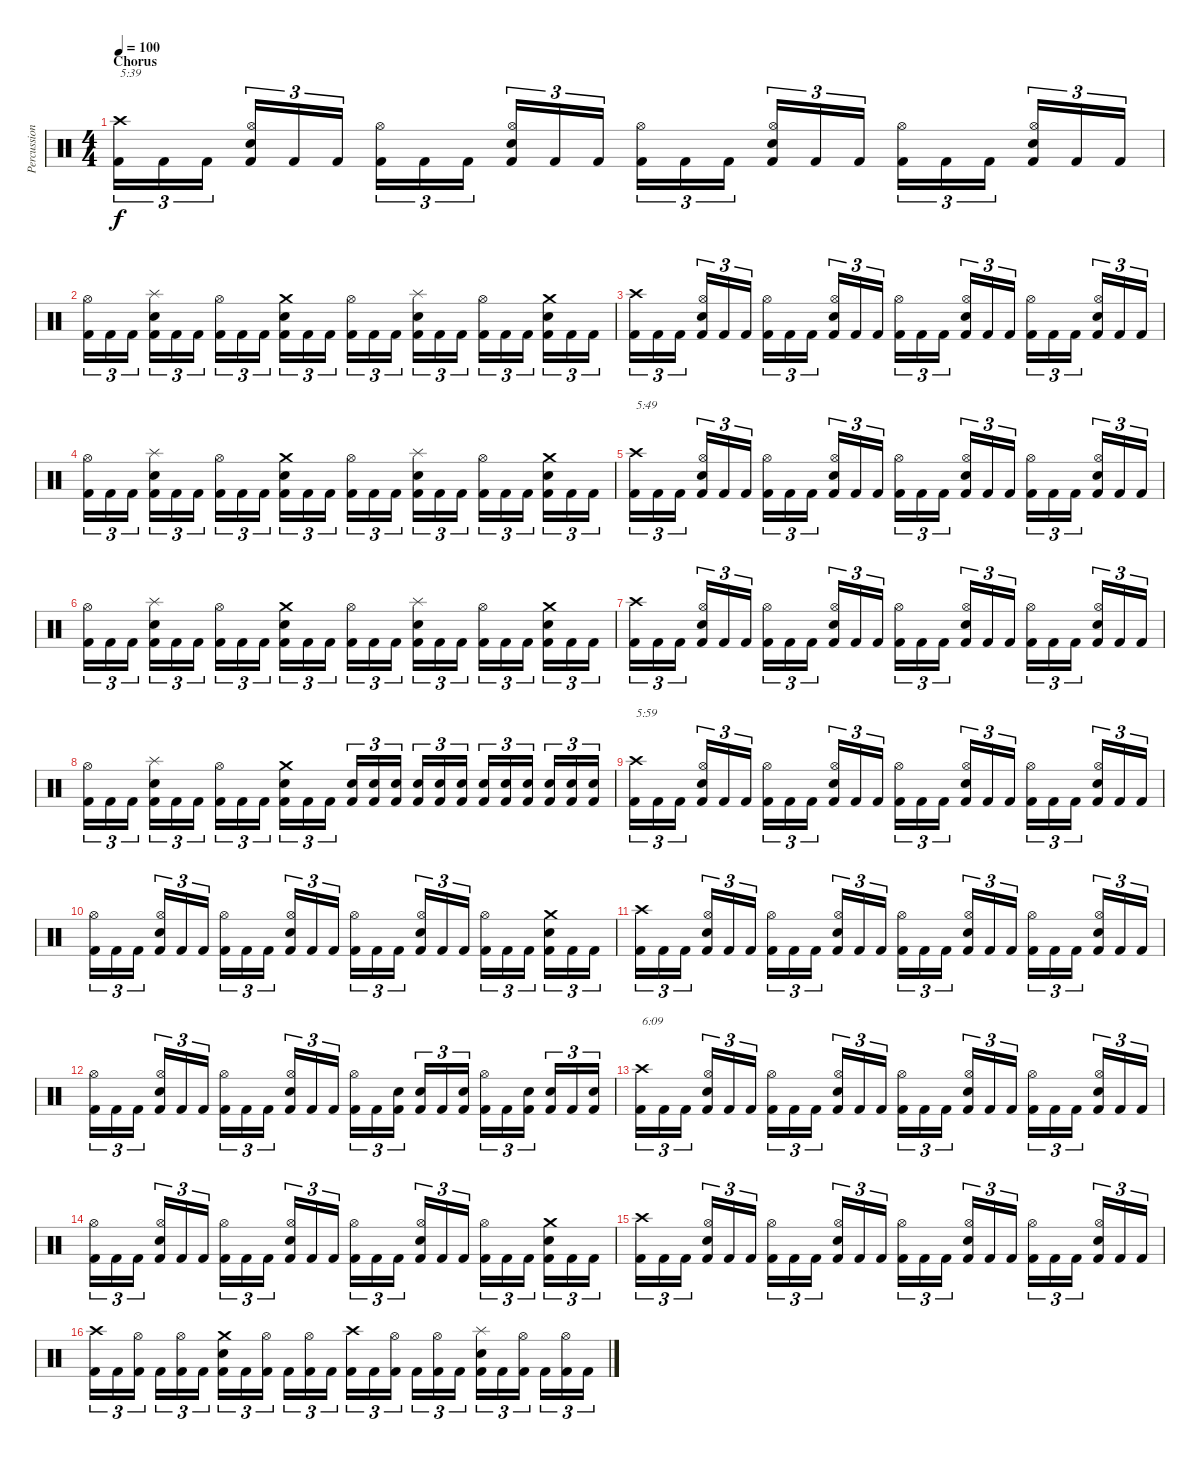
\track ("Percussion" "Percussion") {instrument percussion}
\staff {score}
\articulation defaults
\ts (4 4)
\section ("" "Chorus")
\tempo 100
\clef neutral
\ks c
("Crash high (hit)" "Kick (hit) 2").16{tu (3 2) txt "5:39" dy f} "Kick (hit) 2".16{tu (3 2)} "Kick (hit) 2".16{tu (3 2)} ("Hi-Hat (open)" "Snare (hit) 2" "Kick (hit) 2").16{tu (3 2)} "Kick (hit) 2".16{tu (3 2)} "Kick (hit) 2".16{tu (3 2)} ("Hi-Hat (open)" "Kick (hit) 2").16{tu (3 2)} "Kick (hit) 2".16{tu (3 2)} "Kick (hit) 2".16{tu (3 2)} ("Hi-Hat (open)" "Snare (hit) 2" "Kick (hit) 2").16{tu (3 2)} "Kick (hit) 2".16{tu (3 2)} "Kick (hit) 2".16{tu (3 2)} ("Hi-Hat (open)" "Kick (hit) 2").16{tu (3 2)} "Kick (hit) 2".16{tu (3 2)} "Kick (hit) 2".16{tu (3 2)} ("Hi-Hat (open)" "Snare (hit) 2" "Kick (hit) 2").16{tu (3 2)} "Kick (hit) 2".16{tu (3 2)} "Kick (hit) 2".16{tu (3 2)} ("Hi-Hat (open)" "Kick (hit) 2").16{tu (3 2)} "Kick (hit) 2".16{tu (3 2)} "Kick (hit) 2".16{tu (3 2)} ("Hi-Hat (open)" "Snare (hit) 2" "Kick (hit) 2").16{tu (3 2)} "Kick (hit) 2".16{tu (3 2)} "Kick (hit) 2".16{tu (3 2)} |
("Hi-Hat (open)" "Kick (hit) 2").16{tu (3 2)} "Kick (hit) 2".16{tu (3 2)} "Kick (hit) 2".16{tu (3 2)} ("Splash (hit)" "Snare (hit) 2" "Kick (hit) 2").16{tu (3 2)} "Kick (hit) 2".16{tu (3 2)} "Kick (hit) 2".16{tu (3 2)} ("Hi-Hat (open)" "Kick (hit) 2").16{tu (3 2)} "Kick (hit) 2".16{tu (3 2)} "Kick (hit) 2".16{tu (3 2)} ("Crash medium (hit)" "Snare (hit) 2" "Kick (hit) 2").16{tu (3 2)} "Kick (hit) 2".16{tu (3 2)} "Kick (hit) 2".16{tu (3 2)} ("Hi-Hat (open)" "Kick (hit) 2").16{tu (3 2)} "Kick (hit) 2".16{tu (3 2)} "Kick (hit) 2".16{tu (3 2)} ("Splash (hit)" "Snare (hit) 2" "Kick (hit) 2").16{tu (3 2)} "Kick (hit) 2".16{tu (3 2)} "Kick (hit) 2".16{tu (3 2)} ("Hi-Hat (open)" "Kick (hit) 2").16{tu (3 2)} "Kick (hit) 2".16{tu (3 2)} "Kick (hit) 2".16{tu (3 2)} ("Crash medium (hit)" "Snare (hit) 2" "Kick (hit) 2").16{tu (3 2)} "Kick (hit) 2".16{tu (3 2)} "Kick (hit) 2".16{tu (3 2)} |
("Crash high (hit)" "Kick (hit) 2").16{tu (3 2)} "Kick (hit) 2".16{tu (3 2)} "Kick (hit) 2".16{tu (3 2)} ("Hi-Hat (open)" "Snare (hit) 2" "Kick (hit) 2").16{tu (3 2)} "Kick (hit) 2".16{tu (3 2)} "Kick (hit) 2".16{tu (3 2)} ("Hi-Hat (open)" "Kick (hit) 2").16{tu (3 2)} "Kick (hit) 2".16{tu (3 2)} "Kick (hit) 2".16{tu (3 2)} ("Hi-Hat (open)" "Snare (hit) 2" "Kick (hit) 2").16{tu (3 2)} "Kick (hit) 2".16{tu (3 2)} "Kick (hit) 2".16{tu (3 2)} ("Hi-Hat (open)" "Kick (hit) 2").16{tu (3 2)} "Kick (hit) 2".16{tu (3 2)} "Kick (hit) 2".16{tu (3 2)} ("Hi-Hat (open)" "Snare (hit) 2" "Kick (hit) 2").16{tu (3 2)} "Kick (hit) 2".16{tu (3 2)} "Kick (hit) 2".16{tu (3 2)} ("Hi-Hat (open)" "Kick (hit) 2").16{tu (3 2)} "Kick (hit) 2".16{tu (3 2)} "Kick (hit) 2".16{tu (3 2)} ("Hi-Hat (open)" "Snare (hit) 2" "Kick (hit) 2").16{tu (3 2)} "Kick (hit) 2".16{tu (3 2)} "Kick (hit) 2".16{tu (3 2)} |
("Hi-Hat (open)" "Kick (hit) 2").16{tu (3 2)} "Kick (hit) 2".16{tu (3 2)} "Kick (hit) 2".16{tu (3 2)} ("Splash (hit)" "Snare (hit) 2" "Kick (hit) 2").16{tu (3 2)} "Kick (hit) 2".16{tu (3 2)} "Kick (hit) 2".16{tu (3 2)} ("Hi-Hat (open)" "Kick (hit) 2").16{tu (3 2)} "Kick (hit) 2".16{tu (3 2)} "Kick (hit) 2".16{tu (3 2)} ("Crash medium (hit)" "Snare (hit) 2" "Kick (hit) 2").16{tu (3 2)} "Kick (hit) 2".16{tu (3 2)} "Kick (hit) 2".16{tu (3 2)} ("Hi-Hat (open)" "Kick (hit) 2").16{tu (3 2)} "Kick (hit) 2".16{tu (3 2)} "Kick (hit) 2".16{tu (3 2)} ("Splash (hit)" "Snare (hit) 2" "Kick (hit) 2").16{tu (3 2)} "Kick (hit) 2".16{tu (3 2)} "Kick (hit) 2".16{tu (3 2)} ("Hi-Hat (open)" "Kick (hit) 2").16{tu (3 2)} "Kick (hit) 2".16{tu (3 2)} "Kick (hit) 2".16{tu (3 2)} ("Crash medium (hit)" "Snare (hit) 2" "Kick (hit) 2").16{tu (3 2)} "Kick (hit) 2".16{tu (3 2)} "Kick (hit) 2".16{tu (3 2)} |
("Crash high (hit)" "Kick (hit) 2").16{tu (3 2) txt "5:49"} "Kick (hit) 2".16{tu (3 2)} "Kick (hit) 2".16{tu (3 2)} ("Hi-Hat (open)" "Snare (hit) 2" "Kick (hit) 2").16{tu (3 2)} "Kick (hit) 2".16{tu (3 2)} "Kick (hit) 2".16{tu (3 2)} ("Hi-Hat (open)" "Kick (hit) 2").16{tu (3 2)} "Kick (hit) 2".16{tu (3 2)} "Kick (hit) 2".16{tu (3 2)} ("Hi-Hat (open)" "Snare (hit) 2" "Kick (hit) 2").16{tu (3 2)} "Kick (hit) 2".16{tu (3 2)} "Kick (hit) 2".16{tu (3 2)} ("Hi-Hat (open)" "Kick (hit) 2").16{tu (3 2)} "Kick (hit) 2".16{tu (3 2)} "Kick (hit) 2".16{tu (3 2)} ("Hi-Hat (open)" "Snare (hit) 2" "Kick (hit) 2").16{tu (3 2)} "Kick (hit) 2".16{tu (3 2)} "Kick (hit) 2".16{tu (3 2)} ("Hi-Hat (open)" "Kick (hit) 2").16{tu (3 2)} "Kick (hit) 2".16{tu (3 2)} "Kick (hit) 2".16{tu (3 2)} ("Hi-Hat (open)" "Snare (hit) 2" "Kick (hit) 2").16{tu (3 2)} "Kick (hit) 2".16{tu (3 2)} "Kick (hit) 2".16{tu (3 2)} |
("Hi-Hat (open)" "Kick (hit) 2").16{tu (3 2)} "Kick (hit) 2".16{tu (3 2)} "Kick (hit) 2".16{tu (3 2)} ("Splash (hit)" "Snare (hit) 2" "Kick (hit) 2").16{tu (3 2)} "Kick (hit) 2".16{tu (3 2)} "Kick (hit) 2".16{tu (3 2)} ("Hi-Hat (open)" "Kick (hit) 2").16{tu (3 2)} "Kick (hit) 2".16{tu (3 2)} "Kick (hit) 2".16{tu (3 2)} ("Crash medium (hit)" "Snare (hit) 2" "Kick (hit) 2").16{tu (3 2)} "Kick (hit) 2".16{tu (3 2)} "Kick (hit) 2".16{tu (3 2)} ("Hi-Hat (open)" "Kick (hit) 2").16{tu (3 2)} "Kick (hit) 2".16{tu (3 2)} "Kick (hit) 2".16{tu (3 2)} ("Splash (hit)" "Snare (hit) 2" "Kick (hit) 2").16{tu (3 2)} "Kick (hit) 2".16{tu (3 2)} "Kick (hit) 2".16{tu (3 2)} ("Hi-Hat (open)" "Kick (hit) 2").16{tu (3 2)} "Kick (hit) 2".16{tu (3 2)} "Kick (hit) 2".16{tu (3 2)} ("Crash medium (hit)" "Snare (hit) 2" "Kick (hit) 2").16{tu (3 2)} "Kick (hit) 2".16{tu (3 2)} "Kick (hit) 2".16{tu (3 2)} |
("Crash high (hit)" "Kick (hit) 2").16{tu (3 2)} "Kick (hit) 2".16{tu (3 2)} "Kick (hit) 2".16{tu (3 2)} ("Hi-Hat (open)" "Snare (hit) 2" "Kick (hit) 2").16{tu (3 2)} "Kick (hit) 2".16{tu (3 2)} "Kick (hit) 2".16{tu (3 2)} ("Hi-Hat (open)" "Kick (hit) 2").16{tu (3 2)} "Kick (hit) 2".16{tu (3 2)} "Kick (hit) 2".16{tu (3 2)} ("Hi-Hat (open)" "Snare (hit) 2" "Kick (hit) 2").16{tu (3 2)} "Kick (hit) 2".16{tu (3 2)} "Kick (hit) 2".16{tu (3 2)} ("Hi-Hat (open)" "Kick (hit) 2").16{tu (3 2)} "Kick (hit) 2".16{tu (3 2)} "Kick (hit) 2".16{tu (3 2)} ("Hi-Hat (open)" "Snare (hit) 2" "Kick (hit) 2").16{tu (3 2)} "Kick (hit) 2".16{tu (3 2)} "Kick (hit) 2".16{tu (3 2)} ("Hi-Hat (open)" "Kick (hit) 2").16{tu (3 2)} "Kick (hit) 2".16{tu (3 2)} "Kick (hit) 2".16{tu (3 2)} ("Hi-Hat (open)" "Snare (hit) 2" "Kick (hit) 2").16{tu (3 2)} "Kick (hit) 2".16{tu (3 2)} "Kick (hit) 2".16{tu (3 2)} |
("Hi-Hat (open)" "Kick (hit) 2").16{tu (3 2)} "Kick (hit) 2".16{tu (3 2)} "Kick (hit) 2".16{tu (3 2)} ("Splash (hit)" "Snare (hit) 2" "Kick (hit) 2").16{tu (3 2)} "Kick (hit) 2".16{tu (3 2)} "Kick (hit) 2".16{tu (3 2)} ("Hi-Hat (open)" "Kick (hit) 2").16{tu (3 2)} "Kick (hit) 2".16{tu (3 2)} "Kick (hit) 2".16{tu (3 2)} ("Crash medium (hit)" "Snare (hit) 2" "Kick (hit) 2").16{tu (3 2)} "Kick (hit) 2".16{tu (3 2)} "Kick (hit) 2".16{tu (3 2)} ("Snare (hit) 2" "Kick (hit) 2").16{tu (3 2)} ("Snare (hit) 2" "Kick (hit) 2").16{tu (3 2)} ("Snare (hit) 2" "Kick (hit) 2").16{tu (3 2)} ("Snare (hit) 2" "Kick (hit) 2").16{tu (3 2)} ("Snare (hit) 2" "Kick (hit) 2").16{tu (3 2)} ("Snare (hit) 2" "Kick (hit) 2").16{tu (3 2)} ("Snare (hit) 2" "Kick (hit) 2").16{tu (3 2)} ("Snare (hit) 2" "Kick (hit) 2").16{tu (3 2)} ("Snare (hit) 2" "Kick (hit) 2").16{tu (3 2)} ("Snare (hit) 2" "Kick (hit) 2").16{tu (3 2)} ("Snare (hit) 2" "Kick (hit) 2").16{tu (3 2)} ("Snare (hit) 2" "Kick (hit) 2").16{tu (3 2)} |
("Crash high (hit)" "Kick (hit) 2").16{tu (3 2) txt "5:59"} "Kick (hit) 2".16{tu (3 2)} "Kick (hit) 2".16{tu (3 2)} ("Hi-Hat (open)" "Snare (hit) 2" "Kick (hit) 2").16{tu (3 2)} "Kick (hit) 2".16{tu (3 2)} "Kick (hit) 2".16{tu (3 2)} ("Hi-Hat (open)" "Kick (hit) 2").16{tu (3 2)} "Kick (hit) 2".16{tu (3 2)} "Kick (hit) 2".16{tu (3 2)} ("Hi-Hat (open)" "Snare (hit) 2" "Kick (hit) 2").16{tu (3 2)} "Kick (hit) 2".16{tu (3 2)} "Kick (hit) 2".16{tu (3 2)} ("Hi-Hat (open)" "Kick (hit) 2").16{tu (3 2)} "Kick (hit) 2".16{tu (3 2)} "Kick (hit) 2".16{tu (3 2)} ("Hi-Hat (open)" "Snare (hit) 2" "Kick (hit) 2").16{tu (3 2)} "Kick (hit) 2".16{tu (3 2)} "Kick (hit) 2".16{tu (3 2)} ("Hi-Hat (open)" "Kick (hit) 2").16{tu (3 2)} "Kick (hit) 2".16{tu (3 2)} "Kick (hit) 2".16{tu (3 2)} ("Hi-Hat (open)" "Snare (hit) 2" "Kick (hit) 2").16{tu (3 2)} "Kick (hit) 2".16{tu (3 2)} "Kick (hit) 2".16{tu (3 2)} |
("Hi-Hat (open)" "Kick (hit) 2").16{tu (3 2)} "Kick (hit) 2".16{tu (3 2)} "Kick (hit) 2".16{tu (3 2)} ("Hi-Hat (open)" "Snare (hit) 2" "Kick (hit) 2").16{tu (3 2)} "Kick (hit) 2".16{tu (3 2)} "Kick (hit) 2".16{tu (3 2)} ("Hi-Hat (open)" "Kick (hit) 2").16{tu (3 2)} "Kick (hit) 2".16{tu (3 2)} "Kick (hit) 2".16{tu (3 2)} ("Hi-Hat (open)" "Snare (hit) 2" "Kick (hit) 2").16{tu (3 2)} "Kick (hit) 2".16{tu (3 2)} "Kick (hit) 2".16{tu (3 2)} ("Hi-Hat (open)" "Kick (hit) 2").16{tu (3 2)} "Kick (hit) 2".16{tu (3 2)} "Kick (hit) 2".16{tu (3 2)} ("Hi-Hat (open)" "Snare (hit) 2" "Kick (hit) 2").16{tu (3 2)} "Kick (hit) 2".16{tu (3 2)} "Kick (hit) 2".16{tu (3 2)} ("Hi-Hat (open)" "Kick (hit) 2").16{tu (3 2)} "Kick (hit) 2".16{tu (3 2)} "Kick (hit) 2".16{tu (3 2)} ("Crash medium (hit)" "Snare (hit) 2" "Kick (hit) 2").16{tu (3 2)} "Kick (hit) 2".16{tu (3 2)} "Kick (hit) 2".16{tu (3 2)} |
("Crash high (hit)" "Kick (hit) 2").16{tu (3 2)} "Kick (hit) 2".16{tu (3 2)} "Kick (hit) 2".16{tu (3 2)} ("Hi-Hat (open)" "Snare (hit) 2" "Kick (hit) 2").16{tu (3 2)} "Kick (hit) 2".16{tu (3 2)} "Kick (hit) 2".16{tu (3 2)} ("Hi-Hat (open)" "Kick (hit) 2").16{tu (3 2)} "Kick (hit) 2".16{tu (3 2)} "Kick (hit) 2".16{tu (3 2)} ("Hi-Hat (open)" "Snare (hit) 2" "Kick (hit) 2").16{tu (3 2)} "Kick (hit) 2".16{tu (3 2)} "Kick (hit) 2".16{tu (3 2)} ("Hi-Hat (open)" "Kick (hit) 2").16{tu (3 2)} "Kick (hit) 2".16{tu (3 2)} "Kick (hit) 2".16{tu (3 2)} ("Hi-Hat (open)" "Snare (hit) 2" "Kick (hit) 2").16{tu (3 2)} "Kick (hit) 2".16{tu (3 2)} "Kick (hit) 2".16{tu (3 2)} ("Hi-Hat (open)" "Kick (hit) 2").16{tu (3 2)} "Kick (hit) 2".16{tu (3 2)} "Kick (hit) 2".16{tu (3 2)} ("Hi-Hat (open)" "Snare (hit) 2" "Kick (hit) 2").16{tu (3 2)} "Kick (hit) 2".16{tu (3 2)} "Kick (hit) 2".16{tu (3 2)} |
("Hi-Hat (open)" "Kick (hit) 2").16{tu (3 2)} "Kick (hit) 2".16{tu (3 2)} "Kick (hit) 2".16{tu (3 2)} ("Hi-Hat (open)" "Snare (hit) 2" "Kick (hit) 2").16{tu (3 2)} "Kick (hit) 2".16{tu (3 2)} "Kick (hit) 2".16{tu (3 2)} ("Hi-Hat (open)" "Kick (hit) 2").16{tu (3 2)} "Kick (hit) 2".16{tu (3 2)} "Kick (hit) 2".16{tu (3 2)} ("Hi-Hat (open)" "Snare (hit) 2" "Kick (hit) 2").16{tu (3 2)} "Kick (hit) 2".16{tu (3 2)} "Kick (hit) 2".16{tu (3 2)} ("Hi-Hat (open)" "Kick (hit) 2").16{tu (3 2)} "Kick (hit) 2".16{tu (3 2)} ("Snare (hit) 2" "Kick (hit) 2").16{tu (3 2)} ("Snare (hit) 2" "Kick (hit) 2").16{tu (3 2)} "Kick (hit) 2".16{tu (3 2)} ("Snare (hit) 2" "Kick (hit) 2").16{tu (3 2)} ("Hi-Hat (open)" "Kick (hit) 2").16{tu (3 2)} "Kick (hit) 2".16{tu (3 2)} ("Snare (hit) 2" "Kick (hit) 2").16{tu (3 2)} ("Snare (hit) 2" "Kick (hit) 2").16{tu (3 2)} "Kick (hit) 2".16{tu (3 2)} ("Snare (hit) 2" "Kick (hit) 2").16{tu (3 2)} |
("Crash high (hit)" "Kick (hit) 2").16{tu (3 2) txt "6:09"} "Kick (hit) 2".16{tu (3 2)} "Kick (hit) 2".16{tu (3 2)} ("Hi-Hat (open)" "Snare (hit) 2" "Kick (hit) 2").16{tu (3 2)} "Kick (hit) 2".16{tu (3 2)} "Kick (hit) 2".16{tu (3 2)} ("Hi-Hat (open)" "Kick (hit) 2").16{tu (3 2)} "Kick (hit) 2".16{tu (3 2)} "Kick (hit) 2".16{tu (3 2)} ("Hi-Hat (open)" "Snare (hit) 2" "Kick (hit) 2").16{tu (3 2)} "Kick (hit) 2".16{tu (3 2)} "Kick (hit) 2".16{tu (3 2)} ("Hi-Hat (open)" "Kick (hit) 2").16{tu (3 2)} "Kick (hit) 2".16{tu (3 2)} "Kick (hit) 2".16{tu (3 2)} ("Hi-Hat (open)" "Snare (hit) 2" "Kick (hit) 2").16{tu (3 2)} "Kick (hit) 2".16{tu (3 2)} "Kick (hit) 2".16{tu (3 2)} ("Hi-Hat (open)" "Kick (hit) 2").16{tu (3 2)} "Kick (hit) 2".16{tu (3 2)} "Kick (hit) 2".16{tu (3 2)} ("Hi-Hat (open)" "Snare (hit) 2" "Kick (hit) 2").16{tu (3 2)} "Kick (hit) 2".16{tu (3 2)} "Kick (hit) 2".16{tu (3 2)} |
("Hi-Hat (open)" "Kick (hit) 2").16{tu (3 2)} "Kick (hit) 2".16{tu (3 2)} "Kick (hit) 2".16{tu (3 2)} ("Hi-Hat (open)" "Snare (hit) 2" "Kick (hit) 2").16{tu (3 2)} "Kick (hit) 2".16{tu (3 2)} "Kick (hit) 2".16{tu (3 2)} ("Hi-Hat (open)" "Kick (hit) 2").16{tu (3 2)} "Kick (hit) 2".16{tu (3 2)} "Kick (hit) 2".16{tu (3 2)} ("Hi-Hat (open)" "Snare (hit) 2" "Kick (hit) 2").16{tu (3 2)} "Kick (hit) 2".16{tu (3 2)} "Kick (hit) 2".16{tu (3 2)} ("Hi-Hat (open)" "Kick (hit) 2").16{tu (3 2)} "Kick (hit) 2".16{tu (3 2)} "Kick (hit) 2".16{tu (3 2)} ("Hi-Hat (open)" "Snare (hit) 2" "Kick (hit) 2").16{tu (3 2)} "Kick (hit) 2".16{tu (3 2)} "Kick (hit) 2".16{tu (3 2)} ("Hi-Hat (open)" "Kick (hit) 2").16{tu (3 2)} "Kick (hit) 2".16{tu (3 2)} "Kick (hit) 2".16{tu (3 2)} ("Crash medium (hit)" "Snare (hit) 2" "Kick (hit) 2").16{tu (3 2)} "Kick (hit) 2".16{tu (3 2)} "Kick (hit) 2".16{tu (3 2)} |
("Crash high (hit)" "Kick (hit) 2").16{tu (3 2)} "Kick (hit) 2".16{tu (3 2)} "Kick (hit) 2".16{tu (3 2)} ("Hi-Hat (open)" "Snare (hit) 2" "Kick (hit) 2").16{tu (3 2)} "Kick (hit) 2".16{tu (3 2)} "Kick (hit) 2".16{tu (3 2)} ("Hi-Hat (open)" "Kick (hit) 2").16{tu (3 2)} "Kick (hit) 2".16{tu (3 2)} "Kick (hit) 2".16{tu (3 2)} ("Hi-Hat (open)" "Snare (hit) 2" "Kick (hit) 2").16{tu (3 2)} "Kick (hit) 2".16{tu (3 2)} "Kick (hit) 2".16{tu (3 2)} ("Hi-Hat (open)" "Kick (hit) 2").16{tu (3 2)} "Kick (hit) 2".16{tu (3 2)} "Kick (hit) 2".16{tu (3 2)} ("Hi-Hat (open)" "Snare (hit) 2" "Kick (hit) 2").16{tu (3 2)} "Kick (hit) 2".16{tu (3 2)} "Kick (hit) 2".16{tu (3 2)} ("Hi-Hat (open)" "Kick (hit) 2").16{tu (3 2)} "Kick (hit) 2".16{tu (3 2)} "Kick (hit) 2".16{tu (3 2)} ("Hi-Hat (open)" "Snare (hit) 2" "Kick (hit) 2").16{tu (3 2)} "Kick (hit) 2".16{tu (3 2)} "Kick (hit) 2".16{tu (3 2)} |
("Crash high (hit)" "Kick (hit) 2").16{tu (3 2)} "Kick (hit) 2".16{tu (3 2)} ("Hi-Hat (open)" "Kick (hit) 2").16{tu (3 2)} "Kick (hit) 2".16{tu (3 2)} ("Hi-Hat (open)" "Kick (hit) 2").16{tu (3 2)} "Kick (hit) 2".16{tu (3 2)} ("Crash medium (hit)" "Snare (hit) 2" "Kick (hit) 2").16{tu (3 2)} "Kick (hit) 2".16{tu (3 2)} ("Hi-Hat (open)" "Kick (hit) 2").16{tu (3 2)} "Kick (hit) 2".16{tu (3 2)} ("Hi-Hat (open)" "Kick (hit) 2").16{tu (3 2)} "Kick (hit) 2".16{tu (3 2)} ("Crash high (hit)" "Kick (hit) 2").16{tu (3 2)} "Kick (hit) 2".16{tu (3 2)} ("Hi-Hat (open)" "Kick (hit) 2").16{tu (3 2)} "Kick (hit) 2".16{tu (3 2)} ("Hi-Hat (open)" "Kick (hit) 2").16{tu (3 2)} "Kick (hit) 2".16{tu (3 2)} ("Splash (hit)" "Snare (hit) 2" "Kick (hit) 2").16{tu (3 2)} "Kick (hit) 2".16{tu (3 2)} ("Hi-Hat (open)" "Kick (hit) 2").16{tu (3 2)} "Kick (hit) 2".16{tu (3 2)} ("Hi-Hat (open)" "Kick (hit) 2").16{tu (3 2)} "Kick (hit) 2".16{tu (3 2)}
